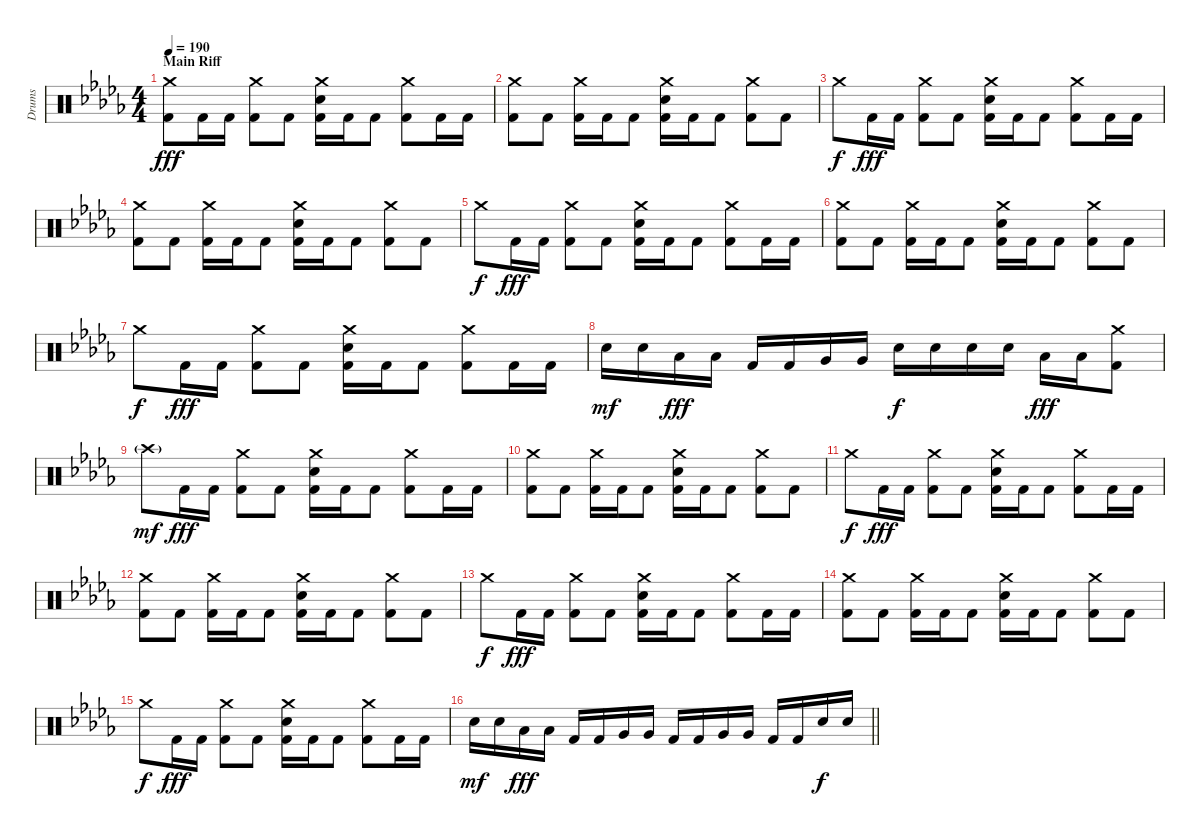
\track ("Drums" "Drums") {instrument percussion}
\staff {score}
\articulation defaults
\ts (4 4)
\section ("" "Main Riff")
\tempo 190
\clef neutral
\ks db
("Crash medium (hit)" "Kick (hit) 2").8{dy fff} "Kick (hit) 2".16 "Kick (hit) 2".16 ("Crash medium (hit)" "Kick (hit) 2").8 "Kick (hit) 2".8 ("Crash medium (hit)" "Electric Snare (hit)" "Kick (hit) 2").16 "Kick (hit) 2".16 "Kick (hit) 2".8 ("Crash medium (hit)" "Kick (hit) 2").8 "Kick (hit) 2".16 "Kick (hit) 2".16 |
("Crash medium (hit)" "Kick (hit) 2").8 "Kick (hit) 2".8 ("Crash medium (hit)" "Kick (hit) 2").16 "Kick (hit) 2".16 "Kick (hit) 2".8 ("Crash medium (hit)" "Electric Snare (hit)" "Kick (hit) 2").16 "Kick (hit) 2".16 "Kick (hit) 2".8 ("Crash medium (hit)" "Kick (hit) 2").8 "Kick (hit) 2".8 |
"Crash medium (hit)".8{dy f} "Kick (hit) 2".16{dy fff} "Kick (hit) 2".16 ("Crash medium (hit)" "Kick (hit) 2").8 "Kick (hit) 2".8 ("Crash medium (hit)" "Electric Snare (hit)" "Kick (hit) 2").16 "Kick (hit) 2".16 "Kick (hit) 2".8 ("Crash medium (hit)" "Kick (hit) 2").8 "Kick (hit) 2".16 "Kick (hit) 2".16 |
("Crash medium (hit)" "Kick (hit) 2").8 "Kick (hit) 2".8 ("Crash medium (hit)" "Kick (hit) 2").16 "Kick (hit) 2".16 "Kick (hit) 2".8 ("Crash medium (hit)" "Electric Snare (hit)" "Kick (hit) 2").16 "Kick (hit) 2".16 "Kick (hit) 2".8 ("Crash medium (hit)" "Kick (hit) 2").8 "Kick (hit) 2".8 |
"Crash medium (hit)".8{dy f} "Kick (hit) 2".16{dy fff} "Kick (hit) 2".16 ("Crash medium (hit)" "Kick (hit) 2").8 "Kick (hit) 2".8 ("Crash medium (hit)" "Electric Snare (hit)" "Kick (hit) 2").16 "Kick (hit) 2".16 "Kick (hit) 2".8 ("Crash medium (hit)" "Kick (hit) 2").8 "Kick (hit) 2".16 "Kick (hit) 2".16 |
("Crash medium (hit)" "Kick (hit) 2").8 "Kick (hit) 2".8 ("Crash medium (hit)" "Kick (hit) 2").16 "Kick (hit) 2".16 "Kick (hit) 2".8 ("Crash medium (hit)" "Electric Snare (hit)" "Kick (hit) 2").16 "Kick (hit) 2".16 "Kick (hit) 2".8 ("Crash medium (hit)" "Kick (hit) 2").8 "Kick (hit) 2".8 |
"Crash medium (hit)".8{dy f} "Kick (hit) 2".16{dy fff} "Kick (hit) 2".16 ("Crash medium (hit)" "Kick (hit) 2").8 "Kick (hit) 2".8 ("Crash medium (hit)" "Electric Snare (hit)" "Kick (hit) 2").16 "Kick (hit) 2".16 "Kick (hit) 2".8 ("Crash medium (hit)" "Kick (hit) 2").8 "Kick (hit) 2".16 "Kick (hit) 2".16 |
"Electric Snare (hit)".16{dy mf} "Electric Snare (hit)".16 "Low Tom (hit)".16{dy fff} "Low Tom (hit)".16 "Kick (hit) 2".16 "Kick (hit) 2".16 "Very Low Tom (hit)".16 "Very Low Tom (hit)".16 "Electric Snare (hit)".16{dy f} "Electric Snare (hit)".16 "Electric Snare (hit)".16 "Electric Snare (hit)".16 "Low Tom (hit)".16{dy fff} "Low Tom (hit)".16 ("Crash medium (hit)" "Kick (hit) 2").8 |
"Crash high (hit)"{g}.8{dy mf} "Kick (hit) 2".16{dy fff} "Kick (hit) 2".16 ("Crash medium (hit)" "Kick (hit) 2").8 "Kick (hit) 2".8 ("Crash medium (hit)" "Electric Snare (hit)" "Kick (hit) 2").16 "Kick (hit) 2".16 "Kick (hit) 2".8 ("Crash medium (hit)" "Kick (hit) 2").8 "Kick (hit) 2".16 "Kick (hit) 2".16 |
("Crash medium (hit)" "Kick (hit) 2").8 "Kick (hit) 2".8 ("Crash medium (hit)" "Kick (hit) 2").16 "Kick (hit) 2".16 "Kick (hit) 2".8 ("Crash medium (hit)" "Electric Snare (hit)" "Kick (hit) 2").16 "Kick (hit) 2".16 "Kick (hit) 2".8 ("Crash medium (hit)" "Kick (hit) 2").8 "Kick (hit) 2".8 |
"Crash medium (hit)".8{dy f} "Kick (hit) 2".16{dy fff} "Kick (hit) 2".16 ("Crash medium (hit)" "Kick (hit) 2").8 "Kick (hit) 2".8 ("Crash medium (hit)" "Electric Snare (hit)" "Kick (hit) 2").16 "Kick (hit) 2".16 "Kick (hit) 2".8 ("Crash medium (hit)" "Kick (hit) 2").8 "Kick (hit) 2".16 "Kick (hit) 2".16 |
("Crash medium (hit)" "Kick (hit) 2").8 "Kick (hit) 2".8 ("Crash medium (hit)" "Kick (hit) 2").16 "Kick (hit) 2".16 "Kick (hit) 2".8 ("Crash medium (hit)" "Electric Snare (hit)" "Kick (hit) 2").16 "Kick (hit) 2".16 "Kick (hit) 2".8 ("Crash medium (hit)" "Kick (hit) 2").8 "Kick (hit) 2".8 |
"Crash medium (hit)".8{dy f} "Kick (hit) 2".16{dy fff} "Kick (hit) 2".16 ("Crash medium (hit)" "Kick (hit) 2").8 "Kick (hit) 2".8 ("Crash medium (hit)" "Electric Snare (hit)" "Kick (hit) 2").16 "Kick (hit) 2".16 "Kick (hit) 2".8 ("Crash medium (hit)" "Kick (hit) 2").8 "Kick (hit) 2".16 "Kick (hit) 2".16 |
("Crash medium (hit)" "Kick (hit) 2").8 "Kick (hit) 2".8 ("Crash medium (hit)" "Kick (hit) 2").16 "Kick (hit) 2".16 "Kick (hit) 2".8 ("Crash medium (hit)" "Electric Snare (hit)" "Kick (hit) 2").16 "Kick (hit) 2".16 "Kick (hit) 2".8 ("Crash medium (hit)" "Kick (hit) 2").8 "Kick (hit) 2".8 |
"Crash medium (hit)".8{dy f} "Kick (hit) 2".16{dy fff} "Kick (hit) 2".16 ("Crash medium (hit)" "Kick (hit) 2").8 "Kick (hit) 2".8 ("Crash medium (hit)" "Electric Snare (hit)" "Kick (hit) 2").16 "Kick (hit) 2".16 "Kick (hit) 2".8 ("Crash medium (hit)" "Kick (hit) 2").8 "Kick (hit) 2".16 "Kick (hit) 2".16 |
\barLineRight lightlight "Electric Snare (hit)".16{dy mf} "Electric Snare (hit)".16 "Low Tom (hit)".16{dy fff} "Low Tom (hit)".16 "Kick (hit) 2".16 "Kick (hit) 2".16 "Very Low Tom (hit)".16 "Very Low Tom (hit)".16 "Kick (hit) 2".16 "Kick (hit) 2".16 "Very Low Tom (hit)".16 "Very Low Tom (hit)".16 "Kick (hit) 2".16 "Kick (hit) 2".16 "Electric Snare (hit)".16{dy f} "Electric Snare (hit)".16
